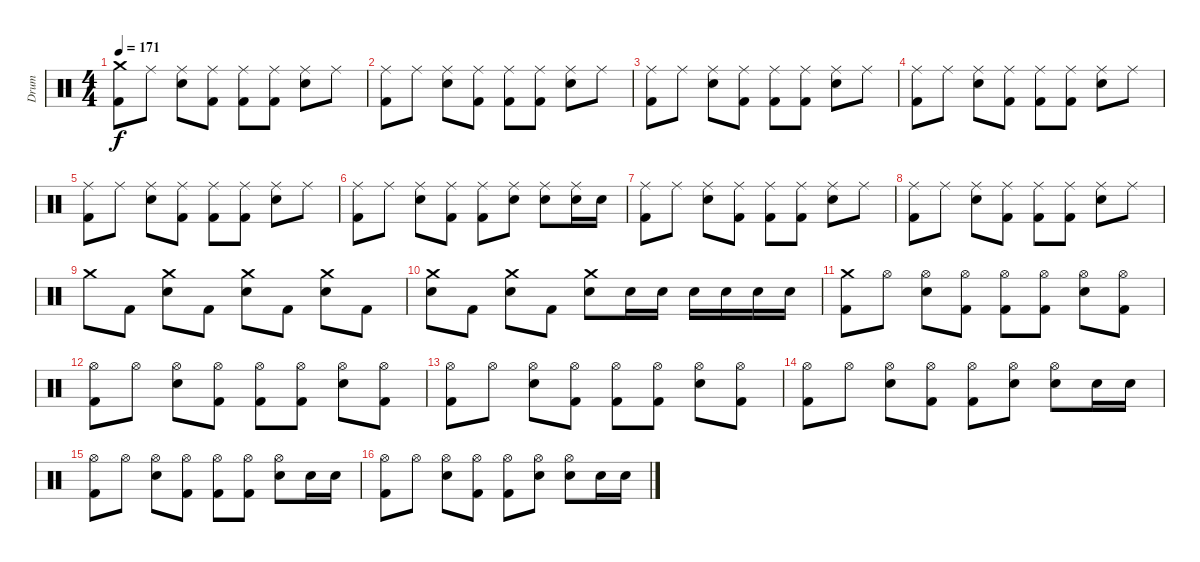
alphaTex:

\track ("Drum" "Drum") {instrument percussion}
\staff {score}
\articulation defaults
\ts (4 4)
\tempo 171
\clef neutral
\ks c
("Crash medium (hit)" "Kick (hit) 2").8{dy f} "Ride (middle)".8 ("Ride (middle)" "Electric Snare (hit)").8 ("Ride (middle)" "Kick (hit) 2").8 ("Ride (middle)" "Kick (hit) 2").8 ("Ride (middle)" "Kick (hit) 2").8 ("Ride (middle)" "Electric Snare (hit)").8 "Ride (middle)".8 |
("Ride (middle)" "Kick (hit) 2").8 "Ride (middle)".8 ("Ride (middle)" "Electric Snare (hit)").8 ("Ride (middle)" "Kick (hit) 2").8 ("Ride (middle)" "Kick (hit) 2").8 ("Ride (middle)" "Kick (hit) 2").8 ("Ride (middle)" "Electric Snare (hit)").8 "Ride (middle)".8 |
("Ride (middle)" "Kick (hit) 2").8 "Ride (middle)".8 ("Ride (middle)" "Electric Snare (hit)").8 ("Ride (middle)" "Kick (hit) 2").8 ("Ride (middle)" "Kick (hit) 2").8 ("Ride (middle)" "Kick (hit) 2").8 ("Ride (middle)" "Electric Snare (hit)").8 "Ride (middle)".8 |
("Ride (middle)" "Kick (hit) 2").8 "Ride (middle)".8 ("Ride (middle)" "Electric Snare (hit)").8 ("Ride (middle)" "Kick (hit) 2").8 ("Ride (middle)" "Kick (hit) 2").8 ("Ride (middle)" "Kick (hit) 2").8 ("Ride (middle)" "Electric Snare (hit)").8 "Ride (middle)".8 |
("Ride (middle)" "Kick (hit) 2").8 "Ride (middle)".8 ("Ride (middle)" "Electric Snare (hit)").8 ("Ride (middle)" "Kick (hit) 2").8 ("Ride (middle)" "Kick (hit) 2").8 ("Ride (middle)" "Kick (hit) 2").8 ("Ride (middle)" "Electric Snare (hit)").8 "Ride (middle)".8 |
("Ride (middle)" "Kick (hit) 2").8 "Ride (middle)".8 ("Ride (middle)" "Electric Snare (hit)").8 ("Ride (middle)" "Kick (hit) 2").8 ("Ride (middle)" "Kick (hit) 2").8 ("Ride (middle)" "Electric Snare (hit)").8 ("Ride (middle)" "Electric Snare (hit)").8 ("Ride (middle)" "Electric Snare (hit)").16 "Electric Snare (hit)".16 |
("Ride (middle)" "Kick (hit) 2").8 "Ride (middle)".8 ("Ride (middle)" "Electric Snare (hit)").8 ("Ride (middle)" "Kick (hit) 2").8 ("Ride (middle)" "Kick (hit) 2").8 ("Ride (middle)" "Kick (hit) 2").8 ("Ride (middle)" "Electric Snare (hit)").8 "Ride (middle)".8 |
("Ride (middle)" "Kick (hit) 2").8 "Ride (middle)".8 ("Ride (middle)" "Electric Snare (hit)").8 ("Ride (middle)" "Kick (hit) 2").8 ("Ride (middle)" "Kick (hit) 2").8 ("Ride (middle)" "Kick (hit) 2").8 ("Ride (middle)" "Electric Snare (hit)").8 "Ride (middle)".8 |
"Crash medium (hit)".8 "Kick (hit) 2".8 ("Crash medium (hit)" "Electric Snare (hit)").8 "Kick (hit) 2".8 ("Crash medium (hit)" "Electric Snare (hit)").8 "Kick (hit) 2".8 ("Crash medium (hit)" "Electric Snare (hit)").8 "Kick (hit) 2".8 |
("Crash medium (hit)" "Electric Snare (hit)").8 "Kick (hit) 2".8 ("Crash medium (hit)" "Electric Snare (hit)").8 "Kick (hit) 2".8 ("Crash medium (hit)" "Electric Snare (hit)").8 "Electric Snare (hit)".16 "Electric Snare (hit)".16 "Electric Snare (hit)".16 "Electric Snare (hit)".16 "Electric Snare (hit)".16 "Electric Snare (hit)".16 |
("Crash medium (hit)" "Kick (hit) 2").8 "Hi-Hat (open)".8 ("Hi-Hat (open)" "Electric Snare (hit)").8 ("Hi-Hat (open)" "Kick (hit) 2").8 ("Hi-Hat (open)" "Kick (hit) 2").8 ("Hi-Hat (open)" "Kick (hit) 2").8 ("Hi-Hat (open)" "Electric Snare (hit)").8 ("Hi-Hat (open)" "Kick (hit) 2").8 |
("Hi-Hat (open)" "Kick (hit) 2").8 "Hi-Hat (open)".8 ("Hi-Hat (open)" "Electric Snare (hit)").8 ("Hi-Hat (open)" "Kick (hit) 2").8 ("Hi-Hat (open)" "Kick (hit) 2").8 ("Hi-Hat (open)" "Kick (hit) 2").8 ("Hi-Hat (open)" "Electric Snare (hit)").8 ("Hi-Hat (open)" "Kick (hit) 2").8 |
("Hi-Hat (open)" "Kick (hit) 2").8 "Hi-Hat (open)".8 ("Hi-Hat (open)" "Electric Snare (hit)").8 ("Hi-Hat (open)" "Kick (hit) 2").8 ("Hi-Hat (open)" "Kick (hit) 2").8 ("Hi-Hat (open)" "Kick (hit) 2").8 ("Hi-Hat (open)" "Electric Snare (hit)").8 ("Hi-Hat (open)" "Kick (hit) 2").8 |
("Hi-Hat (open)" "Kick (hit) 2").8 "Hi-Hat (open)".8 ("Hi-Hat (open)" "Electric Snare (hit)").8 ("Hi-Hat (open)" "Kick (hit) 2").8 ("Hi-Hat (open)" "Kick (hit) 2").8 ("Hi-Hat (open)" "Electric Snare (hit)").8 ("Hi-Hat (open)" "Electric Snare (hit)").8 "Electric Snare (hit)".16 "Electric Snare (hit)".16 |
("Hi-Hat (open)" "Kick (hit) 2").8 "Hi-Hat (open)".8 ("Hi-Hat (open)" "Electric Snare (hit)").8 ("Hi-Hat (open)" "Kick (hit) 2").8 ("Hi-Hat (open)" "Kick (hit) 2").8 ("Hi-Hat (open)" "Kick (hit) 2").8 ("Hi-Hat (open)" "Electric Snare (hit)").8 "Electric Snare (hit)".16 "Electric Snare (hit)".16 |
("Hi-Hat (open)" "Kick (hit) 2").8 "Hi-Hat (open)".8 ("Hi-Hat (open)" "Electric Snare (hit)").8 ("Hi-Hat (open)" "Kick (hit) 2").8 ("Hi-Hat (open)" "Kick (hit) 2").8 ("Hi-Hat (open)" "Electric Snare (hit)").8 ("Hi-Hat (open)" "Electric Snare (hit)").8 "Electric Snare (hit)".16 "Electric Snare (hit)".16
